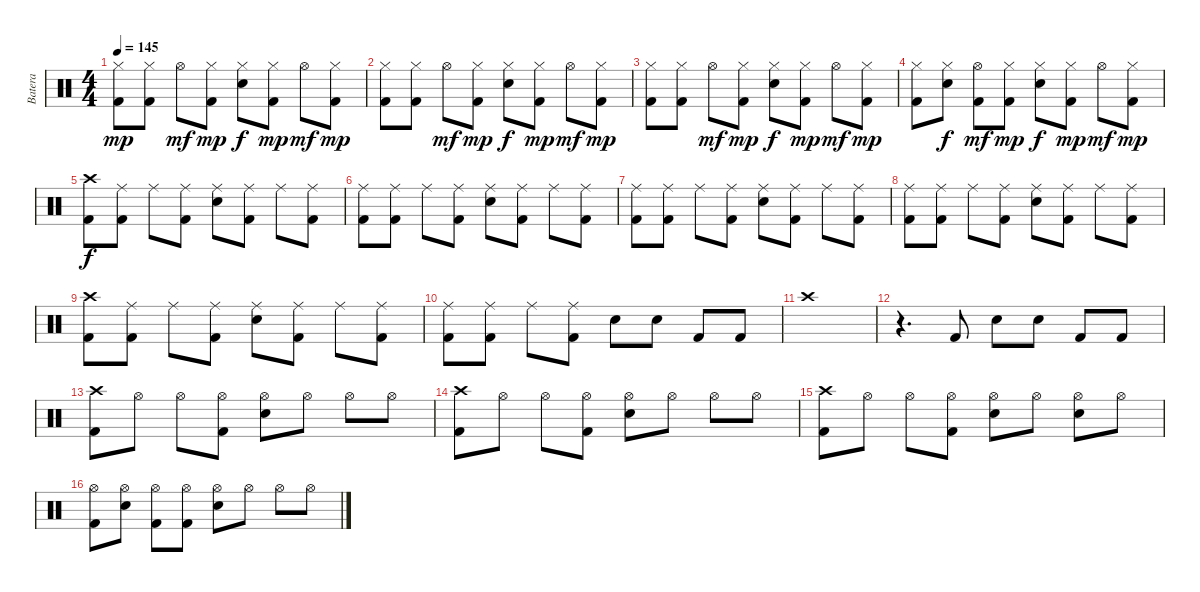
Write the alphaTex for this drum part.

\track ("Batera" "Batera") {instrument percussion}
\staff {score}
\articulation defaults
\ts (4 4)
\tempo 145
\clef neutral
\ks c
("Hi-Hat (closed)" "Kick (hit) 2").8{dy mp} ("Hi-Hat (closed)" "Kick (hit) 2").8 "Hi-Hat (open)".8{dy mf} ("Hi-Hat (closed)" "Kick (hit) 2").8{dy mp} ("Hi-Hat (closed)" "Electric Snare (hit)").8{dy f} ("Hi-Hat (closed)" "Kick (hit) 2").8{dy mp} "Hi-Hat (open)".8{dy mf} ("Hi-Hat (closed)" "Kick (hit) 2").8{dy mp} |
("Hi-Hat (closed)" "Kick (hit) 2").8 ("Hi-Hat (closed)" "Kick (hit) 2").8 "Hi-Hat (open)".8{dy mf} ("Hi-Hat (closed)" "Kick (hit) 2").8{dy mp} ("Hi-Hat (closed)" "Electric Snare (hit)").8{dy f} ("Hi-Hat (closed)" "Kick (hit) 2").8{dy mp} "Hi-Hat (open)".8{dy mf} ("Hi-Hat (closed)" "Kick (hit) 2").8{dy mp} |
("Hi-Hat (closed)" "Kick (hit) 2").8 ("Hi-Hat (closed)" "Kick (hit) 2").8 "Hi-Hat (open)".8{dy mf} ("Hi-Hat (closed)" "Kick (hit) 2").8{dy mp} ("Hi-Hat (closed)" "Electric Snare (hit)").8{dy f} ("Hi-Hat (closed)" "Kick (hit) 2").8{dy mp} "Hi-Hat (open)".8{dy mf} ("Hi-Hat (closed)" "Kick (hit) 2").8{dy mp} |
("Hi-Hat (closed)" "Kick (hit) 2").8 ("Hi-Hat (closed)" "Electric Snare (hit)").8{dy f} ("Hi-Hat (open)" "Kick (hit) 2").8{dy mf} ("Hi-Hat (closed)" "Kick (hit) 2").8{dy mp} ("Hi-Hat (closed)" "Electric Snare (hit)").8{dy f} ("Hi-Hat (closed)" "Kick (hit) 2").8{dy mp} "Hi-Hat (open)".8{dy mf} ("Hi-Hat (closed)" "Kick (hit) 2").8{dy mp} |
("Crash high (hit)" "Kick (hit) 2").8{dy f} ("Ride (middle)" "Kick (hit) 2").8 "Ride (middle)".8 ("Ride (middle)" "Kick (hit) 2").8 ("Ride (middle)" "Electric Snare (hit)").8 ("Ride (middle)" "Kick (hit) 2").8 "Ride (middle)".8 ("Ride (middle)" "Kick (hit) 2").8 |
("Ride (middle)" "Kick (hit) 2").8 ("Ride (middle)" "Kick (hit) 2").8 "Ride (middle)".8 ("Ride (middle)" "Kick (hit) 2").8 ("Ride (middle)" "Electric Snare (hit)").8 ("Ride (middle)" "Kick (hit) 2").8 "Ride (middle)".8 ("Ride (middle)" "Kick (hit) 2").8 |
("Ride (middle)" "Kick (hit) 2").8 ("Ride (middle)" "Kick (hit) 2").8 "Ride (middle)".8 ("Ride (middle)" "Kick (hit) 2").8 ("Ride (middle)" "Electric Snare (hit)").8 ("Ride (middle)" "Kick (hit) 2").8 "Ride (middle)".8 ("Ride (middle)" "Kick (hit) 2").8 |
("Ride (middle)" "Kick (hit) 2").8 ("Ride (middle)" "Kick (hit) 2").8 "Ride (middle)".8 ("Ride (middle)" "Kick (hit) 2").8 ("Ride (middle)" "Electric Snare (hit)").8 ("Ride (middle)" "Kick (hit) 2").8 "Ride (middle)".8 ("Ride (middle)" "Kick (hit) 2").8 |
("Crash high (hit)" "Kick (hit) 2").8 ("Ride (middle)" "Kick (hit) 2").8 "Ride (middle)".8 ("Ride (middle)" "Kick (hit) 2").8 ("Ride (middle)" "Electric Snare (hit)").8 ("Ride (middle)" "Kick (hit) 2").8 "Ride (middle)".8 ("Ride (middle)" "Kick (hit) 2").8 |
("Ride (middle)" "Kick (hit) 2").8 ("Ride (middle)" "Kick (hit) 2").8 "Ride (middle)".8 ("Ride (middle)" "Kick (hit) 2").8 "Electric Snare (hit)".8 "Electric Snare (hit)".8 "Kick (hit) 2".8 "Kick (hit) 2".8 |
"Crash high (hit)".1 |
r.4{d} "Kick (hit) 2".8 "Electric Snare (hit)".8 "Electric Snare (hit)".8 "Kick (hit) 2".8 "Kick (hit) 2".8 |
("Crash high (hit)" "Kick (hit) 2").8 "Hi-Hat (open)".8 "Hi-Hat (open)".8 ("Hi-Hat (open)" "Kick (hit) 2").8 ("Hi-Hat (open)" "Electric Snare (hit)").8 "Hi-Hat (open)".8 "Hi-Hat (open)".8 "Hi-Hat (open)".8 |
("Crash high (hit)" "Kick (hit) 2").8 "Hi-Hat (open)".8 "Hi-Hat (open)".8 ("Hi-Hat (open)" "Kick (hit) 2").8 ("Hi-Hat (open)" "Electric Snare (hit)").8 "Hi-Hat (open)".8 "Hi-Hat (open)".8 "Hi-Hat (open)".8 |
("Crash high (hit)" "Kick (hit) 2").8 "Hi-Hat (open)".8 "Hi-Hat (open)".8 ("Hi-Hat (open)" "Kick (hit) 2").8 ("Hi-Hat (open)" "Electric Snare (hit)").8 "Hi-Hat (open)".8 ("Hi-Hat (open)" "Electric Snare (hit)").8 "Hi-Hat (open)".8 |
("Hi-Hat (open)" "Kick (hit) 2").8 ("Hi-Hat (open)" "Electric Snare (hit)").8 ("Hi-Hat (open)" "Kick (hit) 2").8 ("Hi-Hat (open)" "Kick (hit) 2").8 ("Hi-Hat (open)" "Electric Snare (hit)").8 "Hi-Hat (open)".8 "Hi-Hat (open)".8 "Hi-Hat (open)".8
